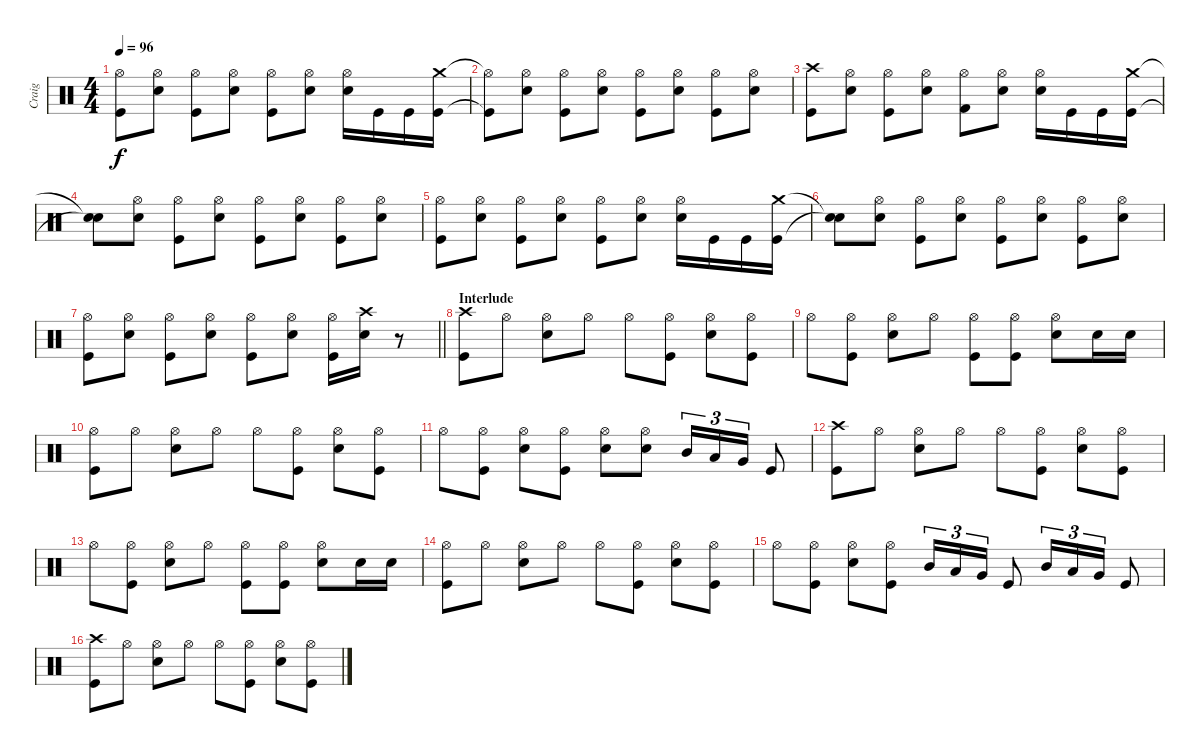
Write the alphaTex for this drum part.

\track ("Craig" "Craig") {instrument percussion}
\staff {score}
\articulation defaults
\ts (4 4)
\tempo 96
\clef neutral
\ks c
("Hi-Hat (open)" "Kick (hit)").8{dy f} ("Hi-Hat (open)" "Snare (hit) 2").8 ("Hi-Hat (open)" "Kick (hit)").8 ("Hi-Hat (open)" "Snare (hit) 2").8 ("Hi-Hat (open)" "Kick (hit)").8 ("Hi-Hat (open)" "Snare (hit) 2").8 ("Hi-Hat (open)" "Snare (hit) 2").16 "Kick (hit)".16 "Kick (hit)".16 ("Crash medium (hit)" "Kick (hit)").16 |
("Hi-Hat (open)"{t} "Kick (hit)"{t}).8 ("Hi-Hat (open)" "Snare (hit) 2").8 ("Hi-Hat (open)" "Kick (hit)").8 ("Hi-Hat (open)" "Snare (hit) 2").8 ("Hi-Hat (open)" "Kick (hit)").8 ("Hi-Hat (open)" "Snare (hit) 2").8 ("Hi-Hat (open)" "Kick (hit)").8 ("Hi-Hat (open)" "Snare (hit) 2").8 |
("Crash high (hit)" "Kick (hit)").8 ("Hi-Hat (open)" "Snare (hit) 2").8 ("Hi-Hat (open)" "Kick (hit)").8 ("Hi-Hat (open)" "Snare (hit) 2").8 ("Hi-Hat (open)" "Kick (hit) 2").8 ("Hi-Hat (open)" "Snare (hit) 2").8 ("Hi-Hat (open)" "Snare (hit) 2").16 "Kick (hit)".16 "Kick (hit)".16 ("Crash medium (hit)" "Kick (hit)").16 |
("Snare (hit)"{t} "Snare (hit)"{t}).8 ("Hi-Hat (open)" "Snare (hit) 2").8 ("Hi-Hat (open)" "Kick (hit)").8 ("Hi-Hat (open)" "Snare (hit) 2").8 ("Hi-Hat (open)" "Kick (hit)").8 ("Hi-Hat (open)" "Snare (hit) 2").8 ("Hi-Hat (open)" "Kick (hit)").8 ("Hi-Hat (open)" "Snare (hit) 2").8 |
("Hi-Hat (open)" "Kick (hit)").8 ("Hi-Hat (open)" "Snare (hit) 2").8 ("Hi-Hat (open)" "Kick (hit)").8 ("Hi-Hat (open)" "Snare (hit) 2").8 ("Hi-Hat (open)" "Kick (hit)").8 ("Hi-Hat (open)" "Snare (hit) 2").8 ("Hi-Hat (open)" "Snare (hit) 2").16 "Kick (hit)".16 "Kick (hit)".16 ("Crash medium (hit)" "Kick (hit)").16 |
("Snare (hit)"{t} "Snare (hit)"{t}).8 ("Hi-Hat (open)" "Snare (hit) 2").8 ("Hi-Hat (open)" "Kick (hit)").8 ("Hi-Hat (open)" "Snare (hit) 2").8 ("Hi-Hat (open)" "Kick (hit)").8 ("Hi-Hat (open)" "Snare (hit) 2").8 ("Hi-Hat (open)" "Kick (hit)").8 ("Hi-Hat (open)" "Snare (hit) 2").8 |
\barLineRight lightlight
("Hi-Hat (open)" "Kick (hit)").8 ("Hi-Hat (open)" "Snare (hit) 2").8 ("Hi-Hat (open)" "Kick (hit)").8 ("Hi-Hat (open)" "Snare (hit) 2").8 ("Hi-Hat (open)" "Kick (hit)").8 ("Hi-Hat (open)" "Snare (hit) 2").8 ("Hi-Hat (open)" "Kick (hit)").16 ("Crash high (hit)" "Snare (hit) 2").16 r.8 |
\section ("" "Interlude")
("Crash high (hit)" "Kick (hit)").8 "Hi-Hat (open)".8 ("Hi-Hat (open)" "Snare (hit) 2").8 "Hi-Hat (open)".8 "Hi-Hat (open)".8 ("Hi-Hat (open)" "Kick (hit)").8 ("Hi-Hat (open)" "Snare (hit) 2").8 ("Hi-Hat (open)" "Kick (hit)").8 |
"Hi-Hat (open)".8 ("Hi-Hat (open)" "Kick (hit)").8 ("Hi-Hat (open)" "Snare (hit) 2").8 "Hi-Hat (open)".8 ("Hi-Hat (open)" "Kick (hit)").8 ("Hi-Hat (open)" "Kick (hit)").8 ("Hi-Hat (open)" "Snare (hit) 2").8 "Snare (hit) 2".16 "Snare (hit) 2".16 |
("Hi-Hat (open)" "Kick (hit)").8 "Hi-Hat (open)".8 ("Hi-Hat (open)" "Snare (hit) 2").8 "Hi-Hat (open)".8 "Hi-Hat (open)".8 ("Hi-Hat (open)" "Kick (hit)").8 ("Hi-Hat (open)" "Snare (hit) 2").8 ("Hi-Hat (open)" "Kick (hit)").8 |
"Hi-Hat (open)".8 ("Hi-Hat (open)" "Kick (hit)").8 ("Hi-Hat (open)" "Snare (hit) 2").8 ("Hi-Hat (open)" "Kick (hit)").8 ("Hi-Hat (open)" "Snare (hit) 2").8 ("Hi-Hat (open)" "Snare (hit) 2").8 "Mid Tom (hit)".16{tu (3 2)} "Low Tom (hit)".16{tu (3 2)} "Very Low Tom (hit)".16{tu (3 2)} "Kick (hit)".8 |
("Crash high (hit)" "Kick (hit)").8 "Hi-Hat (open)".8 ("Hi-Hat (open)" "Snare (hit) 2").8 "Hi-Hat (open)".8 "Hi-Hat (open)".8 ("Hi-Hat (open)" "Kick (hit)").8 ("Hi-Hat (open)" "Snare (hit) 2").8 ("Hi-Hat (open)" "Kick (hit)").8 |
"Hi-Hat (open)".8 ("Hi-Hat (open)" "Kick (hit)").8 ("Hi-Hat (open)" "Snare (hit) 2").8 "Hi-Hat (open)".8 ("Hi-Hat (open)" "Kick (hit)").8 ("Hi-Hat (open)" "Kick (hit)").8 ("Hi-Hat (open)" "Snare (hit) 2").8 "Snare (hit) 2".16 "Snare (hit) 2".16 |
("Hi-Hat (open)" "Kick (hit)").8 "Hi-Hat (open)".8 ("Hi-Hat (open)" "Snare (hit) 2").8 "Hi-Hat (open)".8 "Hi-Hat (open)".8 ("Hi-Hat (open)" "Kick (hit)").8 ("Hi-Hat (open)" "Snare (hit) 2").8 ("Hi-Hat (open)" "Kick (hit)").8 |
"Hi-Hat (open)".8 ("Hi-Hat (open)" "Kick (hit)").8 ("Hi-Hat (open)" "Snare (hit) 2").8 ("Hi-Hat (open)" "Kick (hit)").8 "Mid Tom (hit)".16{tu (3 2)} "Low Tom (hit)".16{tu (3 2)} "Very Low Tom (hit)".16{tu (3 2)} "Kick (hit)".8 "Mid Tom (hit)".16{tu (3 2)} "Low Tom (hit)".16{tu (3 2)} "Very Low Tom (hit)".16{tu (3 2)} "Kick (hit)".8 |
("Crash high (hit)" "Kick (hit)").8 "Hi-Hat (open)".8 ("Hi-Hat (open)" "Snare (hit) 2").8 "Hi-Hat (open)".8 "Hi-Hat (open)".8 ("Hi-Hat (open)" "Kick (hit)").8 ("Hi-Hat (open)" "Snare (hit) 2").8 ("Hi-Hat (open)" "Kick (hit)").8
